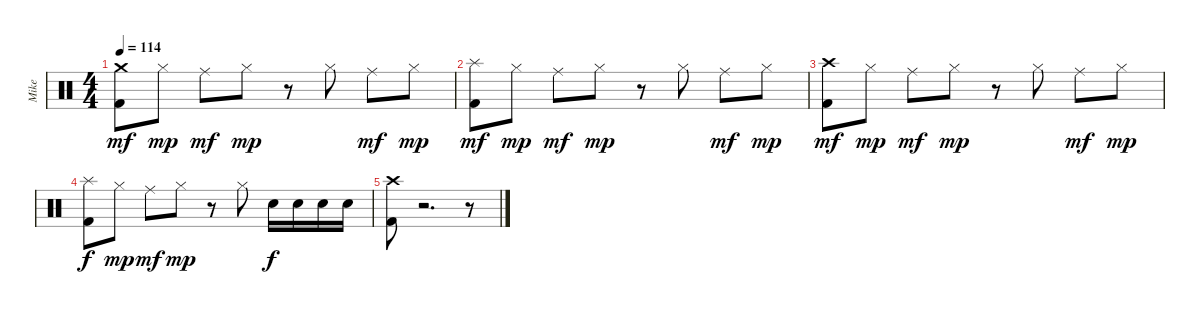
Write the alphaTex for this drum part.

\track ("Mike" "Mike") {instrument percussion}
\staff {score}
\articulation defaults
\ts (4 4)
\tempo 114
\clef neutral
\ks c
("Crash medium (hit)" "Kick (hit) 2").8{dy mf} "Hi-Hat (closed)".8{dy mp} "Ride (middle)".8{dy mf} "Hi-Hat (closed)".8{dy mp} r.8 "Hi-Hat (closed)".8 "Ride (middle)".8{dy mf} "Hi-Hat (closed)".8{dy mp} |
("Splash (hit)" "Kick (hit) 2").8{dy mf} "Hi-Hat (closed)".8{dy mp} "Ride (middle)".8{dy mf} "Hi-Hat (closed)".8{dy mp} r.8 "Hi-Hat (closed)".8 "Ride (middle)".8{dy mf} "Hi-Hat (closed)".8{dy mp} |
("Crash high (hit)" "Kick (hit) 2").8{dy mf} "Hi-Hat (closed)".8{dy mp} "Ride (middle)".8{dy mf} "Hi-Hat (closed)".8{dy mp} r.8 "Hi-Hat (closed)".8 "Ride (middle)".8{dy mf} "Hi-Hat (closed)".8{dy mp} |
("Splash (hit)" "Kick (hit) 2").8{dy f} "Hi-Hat (closed)".8{dy mp} "Ride (middle)".8{dy mf} "Hi-Hat (closed)".8{dy mp} r.8 "Hi-Hat (closed)".8 "Electric Snare (hit)".16{dy f} "Electric Snare (hit)".16 "Electric Snare (hit)".16 "Electric Snare (hit)".16 |
("Crash high (hit)" "Kick (hit) 2").8 r.2{d} r.8
